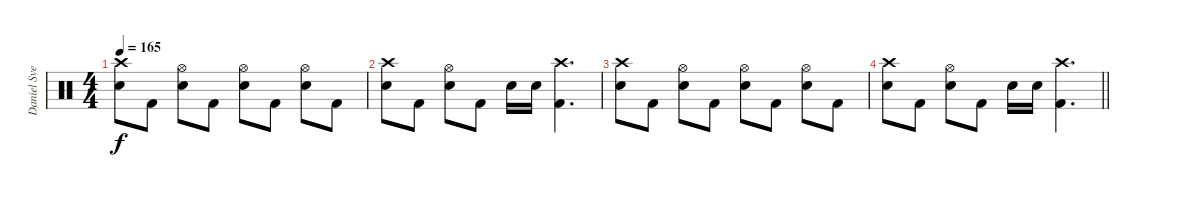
\track ("Daniel Svensson" "Daniel Sve") {instrument percussion}
\staff {score}
\articulation defaults
\ts (4 4)
\tempo 165
\clef neutral
\ks c
("Crash high (hit)" "Electric Snare (hit)").8{dy f} "Kick (hit) 2".8 ("Hi-Hat (open)" "Electric Snare (hit)").8 "Kick (hit) 2".8 ("Hi-Hat (open)" "Electric Snare (hit)").8 "Kick (hit) 2".8 ("Hi-Hat (open)" "Electric Snare (hit)").8 "Kick (hit) 2".8 |
("Crash high (hit)" "Electric Snare (hit)").8 "Kick (hit) 2".8 ("Hi-Hat (open)" "Electric Snare (hit)").8 "Kick (hit) 2".8 "Electric Snare (hit)".16 "Electric Snare (hit)".16 ("Crash high (hit)" "Kick (hit) 2").4{d} |
("Crash high (hit)" "Electric Snare (hit)").8 "Kick (hit) 2".8 ("Hi-Hat (open)" "Electric Snare (hit)").8 "Kick (hit) 2".8 ("Hi-Hat (open)" "Electric Snare (hit)").8 "Kick (hit) 2".8 ("Hi-Hat (open)" "Electric Snare (hit)").8 "Kick (hit) 2".8 |
\barLineRight lightlight
("Crash high (hit)" "Electric Snare (hit)").8 "Kick (hit) 2".8 ("Hi-Hat (open)" "Electric Snare (hit)").8 "Kick (hit) 2".8 "Electric Snare (hit)".16 "Electric Snare (hit)".16 ("Crash high (hit)" "Kick (hit) 2").4{d}
